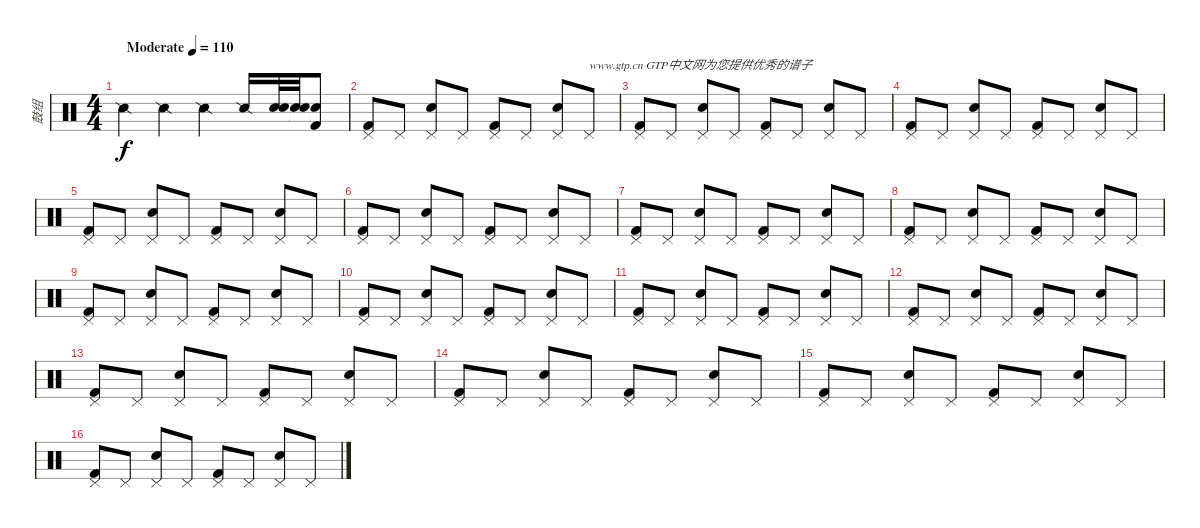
\track ("鼓组" "鼓组") {instrument percussion}
\staff {score}
\articulation defaults
\ts (4 4)
\tempo (110 "Moderate")
\clef neutral
\ks c "Snare (side stick) 2".4{dy f} "Snare (side stick) 2".4 "Snare (side stick) 2".4 "Snare (side stick) 2".16
("Snare (hit) 2" "Snare (hit)").32 ("Electric Snare (hit)" "Snare (hit)"{t}).32 ("Kick (hit) 2" "Snare (hit)"{t}).8 |
("Kick (hit) 2" "Pedal Hi-Hat (hit)").8 "Pedal Hi-Hat (hit)".8 ("Electric Snare (hit)" "Pedal Hi-Hat (hit)").8 "Pedal Hi-Hat (hit)".8 ("Kick (hit) 2" "Pedal Hi-Hat (hit)").8 "Pedal Hi-Hat (hit)".8 ("Electric Snare (hit)" "Pedal Hi-Hat (hit)").8 "Pedal Hi-Hat (hit)".8{txt "www.gtp.cn GTP中文网为您提供优秀的谱子"} |
("Kick (hit) 2" "Pedal Hi-Hat (hit)").8 "Pedal Hi-Hat (hit)".8 ("Electric Snare (hit)" "Pedal Hi-Hat (hit)").8 "Pedal Hi-Hat (hit)".8 ("Kick (hit) 2" "Pedal Hi-Hat (hit)").8 "Pedal Hi-Hat (hit)".8 ("Electric Snare (hit)" "Pedal Hi-Hat (hit)").8 "Pedal Hi-Hat (hit)".8 |
("Kick (hit) 2" "Pedal Hi-Hat (hit)").8 "Pedal Hi-Hat (hit)".8 ("Electric Snare (hit)" "Pedal Hi-Hat (hit)").8 "Pedal Hi-Hat (hit)".8 ("Kick (hit) 2" "Pedal Hi-Hat (hit)").8 "Pedal Hi-Hat (hit)".8 ("Electric Snare (hit)" "Pedal Hi-Hat (hit)").8 "Pedal Hi-Hat (hit)".8 |
("Kick (hit) 2" "Pedal Hi-Hat (hit)").8 "Pedal Hi-Hat (hit)".8 ("Electric Snare (hit)" "Pedal Hi-Hat (hit)").8 "Pedal Hi-Hat (hit)".8 ("Kick (hit) 2" "Pedal Hi-Hat (hit)").8 "Pedal Hi-Hat (hit)".8 ("Electric Snare (hit)" "Pedal Hi-Hat (hit)").8 "Pedal Hi-Hat (hit)".8 |
("Kick (hit) 2" "Pedal Hi-Hat (hit)").8 "Pedal Hi-Hat (hit)".8 ("Electric Snare (hit)" "Pedal Hi-Hat (hit)").8 "Pedal Hi-Hat (hit)".8 ("Kick (hit) 2" "Pedal Hi-Hat (hit)").8 "Pedal Hi-Hat (hit)".8 ("Electric Snare (hit)" "Pedal Hi-Hat (hit)").8 "Pedal Hi-Hat (hit)".8 |
("Kick (hit) 2" "Pedal Hi-Hat (hit)").8 "Pedal Hi-Hat (hit)".8 ("Electric Snare (hit)" "Pedal Hi-Hat (hit)").8 "Pedal Hi-Hat (hit)".8 ("Kick (hit) 2" "Pedal Hi-Hat (hit)").8 "Pedal Hi-Hat (hit)".8 ("Electric Snare (hit)" "Pedal Hi-Hat (hit)").8 "Pedal Hi-Hat (hit)".8 |
("Kick (hit) 2" "Pedal Hi-Hat (hit)").8 "Pedal Hi-Hat (hit)".8 ("Electric Snare (hit)" "Pedal Hi-Hat (hit)").8 "Pedal Hi-Hat (hit)".8 ("Kick (hit) 2" "Pedal Hi-Hat (hit)").8 "Pedal Hi-Hat (hit)".8 ("Electric Snare (hit)" "Pedal Hi-Hat (hit)").8 "Pedal Hi-Hat (hit)".8 |
("Kick (hit) 2" "Pedal Hi-Hat (hit)").8 "Pedal Hi-Hat (hit)".8 ("Electric Snare (hit)" "Pedal Hi-Hat (hit)").8 "Pedal Hi-Hat (hit)".8 ("Kick (hit) 2" "Pedal Hi-Hat (hit)").8 "Pedal Hi-Hat (hit)".8 ("Electric Snare (hit)" "Pedal Hi-Hat (hit)").8 "Pedal Hi-Hat (hit)".8 |
("Kick (hit) 2" "Pedal Hi-Hat (hit)").8 "Pedal Hi-Hat (hit)".8 ("Electric Snare (hit)" "Pedal Hi-Hat (hit)").8 "Pedal Hi-Hat (hit)".8 ("Kick (hit) 2" "Pedal Hi-Hat (hit)").8 "Pedal Hi-Hat (hit)".8 ("Electric Snare (hit)" "Pedal Hi-Hat (hit)").8 "Pedal Hi-Hat (hit)".8 |
("Kick (hit) 2" "Pedal Hi-Hat (hit)").8 "Pedal Hi-Hat (hit)".8 ("Electric Snare (hit)" "Pedal Hi-Hat (hit)").8 "Pedal Hi-Hat (hit)".8 ("Kick (hit) 2" "Pedal Hi-Hat (hit)").8 "Pedal Hi-Hat (hit)".8 ("Electric Snare (hit)" "Pedal Hi-Hat (hit)").8 "Pedal Hi-Hat (hit)".8 |
("Kick (hit) 2" "Pedal Hi-Hat (hit)").8 "Pedal Hi-Hat (hit)".8 ("Electric Snare (hit)" "Pedal Hi-Hat (hit)").8 "Pedal Hi-Hat (hit)".8 ("Kick (hit) 2" "Pedal Hi-Hat (hit)").8 "Pedal Hi-Hat (hit)".8 ("Electric Snare (hit)" "Pedal Hi-Hat (hit)").8 "Pedal Hi-Hat (hit)".8 |
("Kick (hit) 2" "Pedal Hi-Hat (hit)").8 "Pedal Hi-Hat (hit)".8 ("Electric Snare (hit)" "Pedal Hi-Hat (hit)").8 "Pedal Hi-Hat (hit)".8 ("Kick (hit) 2" "Pedal Hi-Hat (hit)").8 "Pedal Hi-Hat (hit)".8 ("Electric Snare (hit)" "Pedal Hi-Hat (hit)").8 "Pedal Hi-Hat (hit)".8 |
("Kick (hit) 2" "Pedal Hi-Hat (hit)").8 "Pedal Hi-Hat (hit)".8 ("Electric Snare (hit)" "Pedal Hi-Hat (hit)").8 "Pedal Hi-Hat (hit)".8 ("Kick (hit) 2" "Pedal Hi-Hat (hit)").8 "Pedal Hi-Hat (hit)".8 ("Electric Snare (hit)" "Pedal Hi-Hat (hit)").8 "Pedal Hi-Hat (hit)".8 |
("Kick (hit) 2" "Pedal Hi-Hat (hit)").8 "Pedal Hi-Hat (hit)".8 ("Electric Snare (hit)" "Pedal Hi-Hat (hit)").8 "Pedal Hi-Hat (hit)".8 ("Kick (hit) 2" "Pedal Hi-Hat (hit)").8 "Pedal Hi-Hat (hit)".8 ("Electric Snare (hit)" "Pedal Hi-Hat (hit)").8 "Pedal Hi-Hat (hit)".8 |
("Kick (hit) 2" "Pedal Hi-Hat (hit)").8 "Pedal Hi-Hat (hit)".8 ("Electric Snare (hit)" "Pedal Hi-Hat (hit)").8 "Pedal Hi-Hat (hit)".8 ("Kick (hit) 2" "Pedal Hi-Hat (hit)").8 "Pedal Hi-Hat (hit)".8 ("Electric Snare (hit)" "Pedal Hi-Hat (hit)").8 "Pedal Hi-Hat (hit)".8
